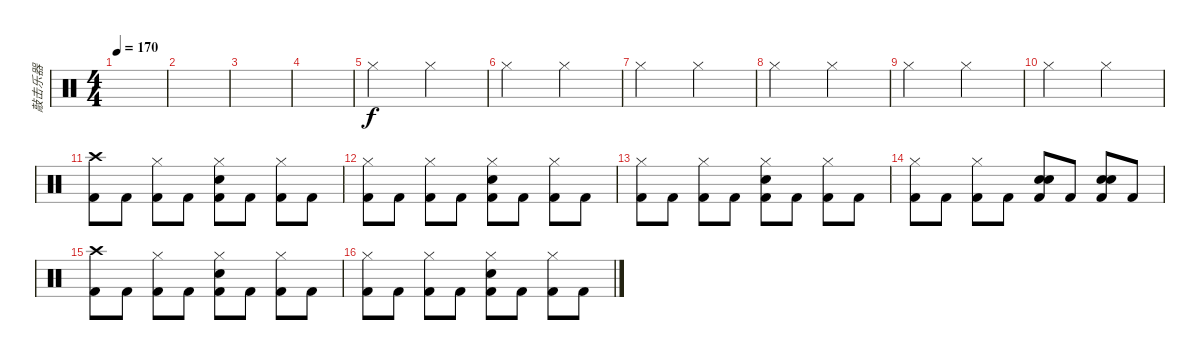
\track ("敲击乐器" "敲击乐器") {instrument percussion}
\staff {score}
\articulation defaults
\ts (4 4)
\tempo 170
\clef neutral
\ks c
|
|
|
|
"Hi-Hat (closed)".2 "Hi-Hat (closed)".2 |
"Hi-Hat (closed)".2 "Hi-Hat (closed)".2 |
"Hi-Hat (closed)".2 "Hi-Hat (closed)".2 |
"Hi-Hat (closed)".2 "Hi-Hat (closed)".2 |
"Hi-Hat (closed)".2 "Hi-Hat (closed)".2 |
"Hi-Hat (closed)".2 "Hi-Hat (closed)".2 |
("Crash high (hit)" "Kick (hit) 2").8 "Kick (hit) 2".8 ("Hi-Hat (closed)" "Kick (hit) 2").8 "Kick (hit) 2".8 ("Hi-Hat (closed)" "Electric Snare (hit)" "Kick (hit) 2").8 "Kick (hit) 2".8 ("Hi-Hat (closed)" "Kick (hit) 2").8 "Kick (hit) 2".8 |
("Hi-Hat (closed)" "Kick (hit) 2").8 "Kick (hit) 2".8 ("Hi-Hat (closed)" "Kick (hit) 2").8 "Kick (hit) 2".8 ("Hi-Hat (closed)" "Electric Snare (hit)" "Kick (hit) 2").8 "Kick (hit) 2".8 ("Hi-Hat (closed)" "Kick (hit) 2").8 "Kick (hit) 2".8 |
("Hi-Hat (closed)" "Kick (hit) 2").8 "Kick (hit) 2".8 ("Hi-Hat (closed)" "Kick (hit) 2").8 "Kick (hit) 2".8 ("Hi-Hat (closed)" "Electric Snare (hit)" "Kick (hit) 2").8 "Kick (hit) 2".8 ("Hi-Hat (closed)" "Kick (hit) 2").8 "Kick (hit) 2".8 |
("Hi-Hat (closed)" "Kick (hit) 2").8 "Kick (hit) 2".8 ("Hi-Hat (closed)" "Kick (hit) 2").8 "Kick (hit) 2".8 ("Electric Snare (hit)" "Electric Snare (hit)" "Kick (hit) 2").8 "Kick (hit) 2".8 ("Electric Snare (hit)" "Electric Snare (hit)" "Kick (hit) 2").8 "Kick (hit) 2".8 |
("Crash high (hit)" "Kick (hit) 2").8 "Kick (hit) 2".8 ("Hi-Hat (closed)" "Kick (hit) 2").8 "Kick (hit) 2".8 ("Hi-Hat (closed)" "Electric Snare (hit)" "Kick (hit) 2").8 "Kick (hit) 2".8 ("Hi-Hat (closed)" "Kick (hit) 2").8 "Kick (hit) 2".8 |
("Hi-Hat (closed)" "Kick (hit) 2").8 "Kick (hit) 2".8 ("Hi-Hat (closed)" "Kick (hit) 2").8 "Kick (hit) 2".8 ("Hi-Hat (closed)" "Electric Snare (hit)" "Kick (hit) 2").8 "Kick (hit) 2".8 ("Hi-Hat (closed)" "Kick (hit) 2").8 "Kick (hit) 2".8
